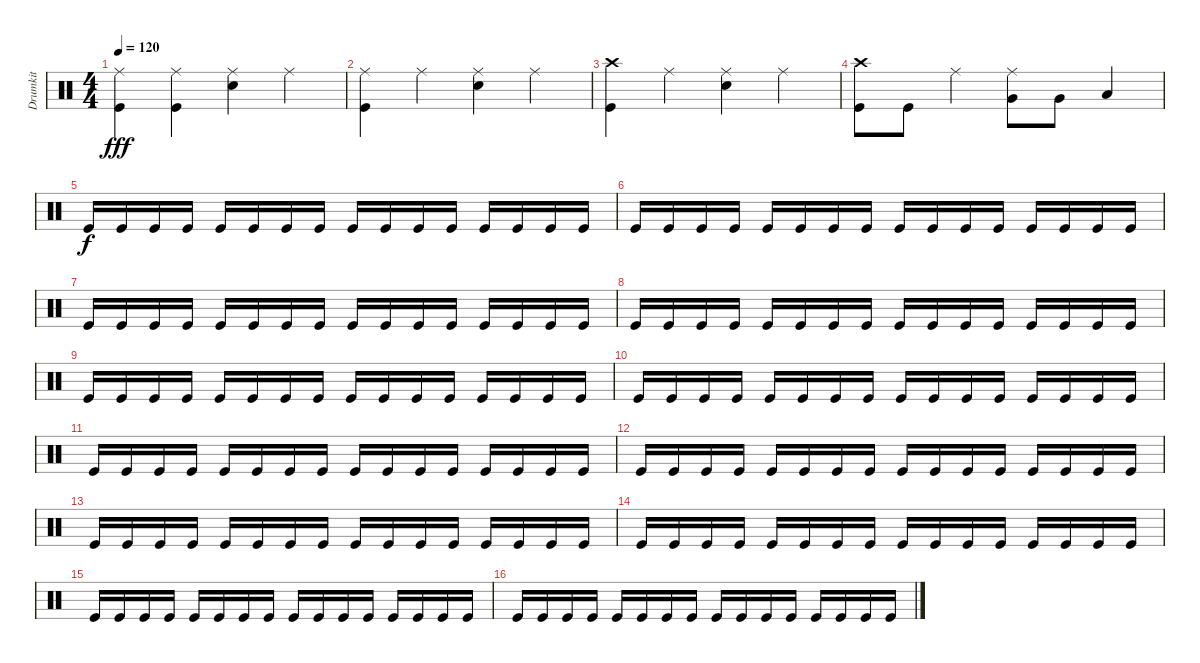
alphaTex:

\track ("Drumkit" "Drumkit") {instrument percussion}
\staff {score}
\articulation defaults
\ts (4 4)
\tempo 120
\clef neutral
\ks c
("Ride (middle)" "Kick (hit)").4{dy fff} ("Ride (middle)" "Kick (hit)").4 ("Ride (middle)" "Snare (hit) 2").4 "Ride (middle)".4 |
("Ride (middle)" "Kick (hit)").4 "Ride (middle)".4 ("Ride (middle)" "Snare (hit) 2").4 "Ride (middle)".4 |
("Kick (hit)" "Crash high (hit)").4 "Ride (middle)".4 ("Ride (middle)" "Snare (hit) 2").4 "Ride (middle)".4 |
("Kick (hit)" "Crash high (hit)").8 "Kick (hit)".8 "Ride (middle)".4 ("Ride (middle)" "Very Low Tom (hit)").8 "Very Low Tom (hit)".8 "Low Tom (hit)".4 |
"Kick (hit)".16{dy f} "Kick (hit)".16 "Kick (hit)".16 "Kick (hit)".16 "Kick (hit)".16 "Kick (hit)".16 "Kick (hit)".16 "Kick (hit)".16 "Kick (hit)".16 "Kick (hit)".16 "Kick (hit)".16 "Kick (hit)".16 "Kick (hit)".16 "Kick (hit)".16 "Kick (hit)".16 "Kick (hit)".16 |
"Kick (hit)".16 "Kick (hit)".16 "Kick (hit)".16 "Kick (hit)".16 "Kick (hit)".16 "Kick (hit)".16 "Kick (hit)".16 "Kick (hit)".16 "Kick (hit)".16 "Kick (hit)".16 "Kick (hit)".16 "Kick (hit)".16 "Kick (hit)".16 "Kick (hit)".16 "Kick (hit)".16 "Kick (hit)".16 |
"Kick (hit)".16 "Kick (hit)".16 "Kick (hit)".16 "Kick (hit)".16 "Kick (hit)".16 "Kick (hit)".16 "Kick (hit)".16 "Kick (hit)".16 "Kick (hit)".16 "Kick (hit)".16 "Kick (hit)".16 "Kick (hit)".16 "Kick (hit)".16 "Kick (hit)".16 "Kick (hit)".16 "Kick (hit)".16 |
"Kick (hit)".16 "Kick (hit)".16 "Kick (hit)".16 "Kick (hit)".16 "Kick (hit)".16 "Kick (hit)".16 "Kick (hit)".16 "Kick (hit)".16 "Kick (hit)".16 "Kick (hit)".16 "Kick (hit)".16 "Kick (hit)".16 "Kick (hit)".16 "Kick (hit)".16 "Kick (hit)".16 "Kick (hit)".16 |
"Kick (hit)".16 "Kick (hit)".16 "Kick (hit)".16 "Kick (hit)".16 "Kick (hit)".16 "Kick (hit)".16 "Kick (hit)".16 "Kick (hit)".16 "Kick (hit)".16 "Kick (hit)".16 "Kick (hit)".16 "Kick (hit)".16 "Kick (hit)".16 "Kick (hit)".16 "Kick (hit)".16 "Kick (hit)".16 |
"Kick (hit)".16 "Kick (hit)".16 "Kick (hit)".16 "Kick (hit)".16 "Kick (hit)".16 "Kick (hit)".16 "Kick (hit)".16 "Kick (hit)".16 "Kick (hit)".16 "Kick (hit)".16 "Kick (hit)".16 "Kick (hit)".16 "Kick (hit)".16 "Kick (hit)".16 "Kick (hit)".16 "Kick (hit)".16 |
"Kick (hit)".16 "Kick (hit)".16 "Kick (hit)".16 "Kick (hit)".16 "Kick (hit)".16 "Kick (hit)".16 "Kick (hit)".16 "Kick (hit)".16 "Kick (hit)".16 "Kick (hit)".16 "Kick (hit)".16 "Kick (hit)".16 "Kick (hit)".16 "Kick (hit)".16 "Kick (hit)".16 "Kick (hit)".16 |
"Kick (hit)".16 "Kick (hit)".16 "Kick (hit)".16 "Kick (hit)".16 "Kick (hit)".16 "Kick (hit)".16 "Kick (hit)".16 "Kick (hit)".16 "Kick (hit)".16 "Kick (hit)".16 "Kick (hit)".16 "Kick (hit)".16 "Kick (hit)".16 "Kick (hit)".16 "Kick (hit)".16 "Kick (hit)".16 |
"Kick (hit)".16 "Kick (hit)".16 "Kick (hit)".16 "Kick (hit)".16 "Kick (hit)".16 "Kick (hit)".16 "Kick (hit)".16 "Kick (hit)".16 "Kick (hit)".16 "Kick (hit)".16 "Kick (hit)".16 "Kick (hit)".16 "Kick (hit)".16 "Kick (hit)".16 "Kick (hit)".16 "Kick (hit)".16 |
"Kick (hit)".16 "Kick (hit)".16 "Kick (hit)".16 "Kick (hit)".16 "Kick (hit)".16 "Kick (hit)".16 "Kick (hit)".16 "Kick (hit)".16 "Kick (hit)".16 "Kick (hit)".16 "Kick (hit)".16 "Kick (hit)".16 "Kick (hit)".16 "Kick (hit)".16 "Kick (hit)".16 "Kick (hit)".16 |
"Kick (hit)".16 "Kick (hit)".16 "Kick (hit)".16 "Kick (hit)".16 "Kick (hit)".16 "Kick (hit)".16 "Kick (hit)".16 "Kick (hit)".16 "Kick (hit)".16 "Kick (hit)".16 "Kick (hit)".16 "Kick (hit)".16 "Kick (hit)".16 "Kick (hit)".16 "Kick (hit)".16 "Kick (hit)".16 |
"Kick (hit)".16 "Kick (hit)".16 "Kick (hit)".16 "Kick (hit)".16 "Kick (hit)".16 "Kick (hit)".16 "Kick (hit)".16 "Kick (hit)".16 "Kick (hit)".16 "Kick (hit)".16 "Kick (hit)".16 "Kick (hit)".16 "Kick (hit)".16 "Kick (hit)".16 "Kick (hit)".16 "Kick (hit)".16
